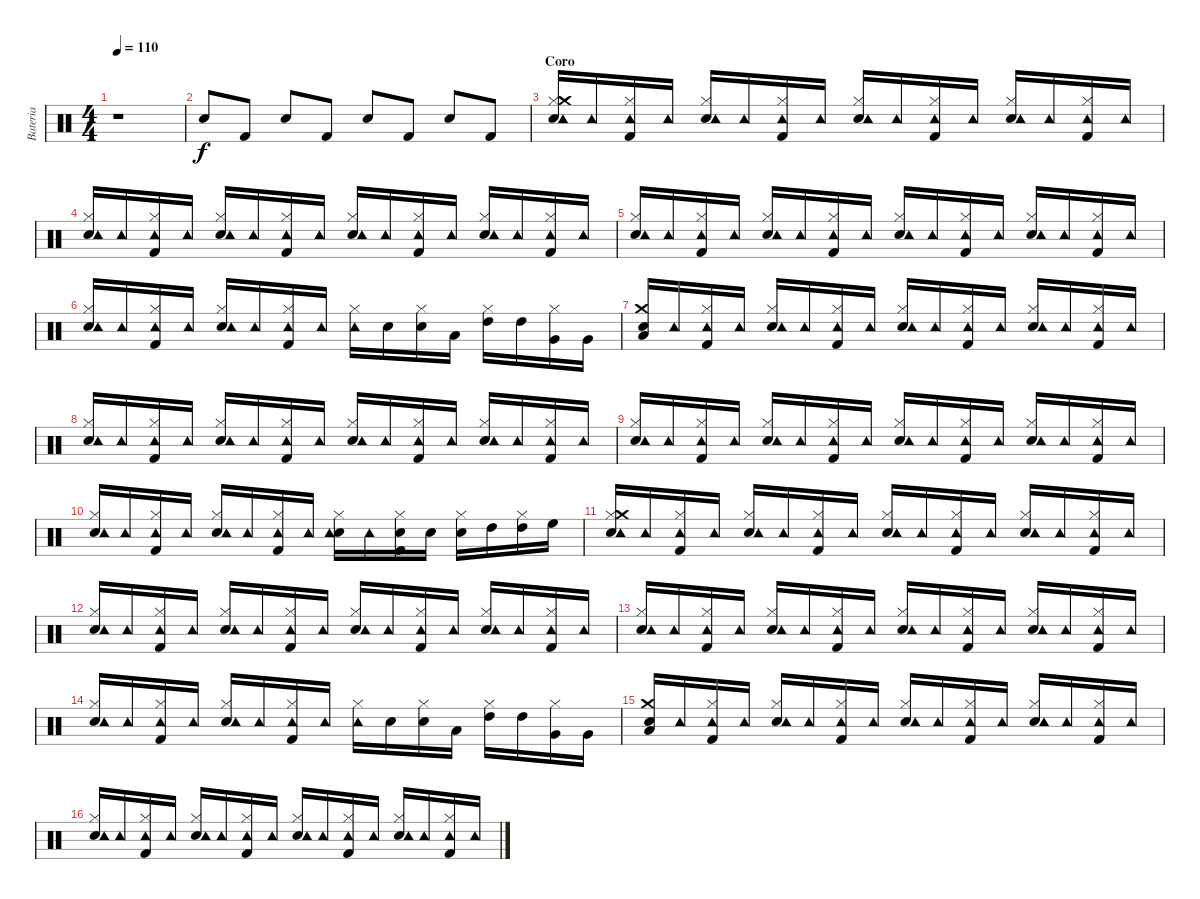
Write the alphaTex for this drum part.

\track ("Bateria" "Bateria") {instrument percussion}
\staff {score}
\articulation defaults
\ts (4 4)
\tempo 110
\clef neutral
\ks c
r.1{dy f} |
"Snare (hit) 2".8 "Kick (hit) 2".8 "Snare (hit) 2".8 "Kick (hit) 2".8 "Snare (hit) 2".8 "Kick (hit) 2".8 "Snare (hit) 2".8 "Kick (hit) 2".8 |
\section ("" "Coro")
("Hi-Hat (closed)" "Snare (hit) 2" "Crash medium (hit)" "Tambourine (hit)").16 "Tambourine (hit)".16 ("Hi-Hat (closed)" "Kick (hit) 2" "Tambourine (hit)").16 "Tambourine (hit)".16 ("Hi-Hat (closed)" "Snare (hit) 2" "Tambourine (hit)").16 "Tambourine (hit)".16 ("Hi-Hat (closed)" "Kick (hit) 2" "Tambourine (hit)").16 "Tambourine (hit)".16 ("Hi-Hat (closed)" "Snare (hit) 2" "Tambourine (hit)").16 "Tambourine (hit)".16 ("Hi-Hat (closed)" "Kick (hit) 2" "Tambourine (hit)").16 "Tambourine (hit)".16 ("Hi-Hat (closed)" "Snare (hit) 2" "Tambourine (hit)").16 "Tambourine (hit)".16 ("Hi-Hat (closed)" "Kick (hit) 2" "Tambourine (hit)").16 "Tambourine (hit)".16 |
("Hi-Hat (closed)" "Snare (hit) 2" "Tambourine (hit)").16 "Tambourine (hit)".16 ("Hi-Hat (closed)" "Kick (hit) 2" "Tambourine (hit)").16 "Tambourine (hit)".16 ("Hi-Hat (closed)" "Snare (hit) 2" "Tambourine (hit)").16 "Tambourine (hit)".16 ("Hi-Hat (closed)" "Kick (hit) 2" "Tambourine (hit)").16 "Tambourine (hit)".16 ("Hi-Hat (closed)" "Snare (hit) 2" "Tambourine (hit)").16 "Tambourine (hit)".16 ("Hi-Hat (closed)" "Kick (hit) 2" "Tambourine (hit)").16 "Tambourine (hit)".16 ("Hi-Hat (closed)" "Snare (hit) 2" "Tambourine (hit)").16 "Tambourine (hit)".16 ("Hi-Hat (closed)" "Kick (hit) 2" "Tambourine (hit)").16 "Tambourine (hit)".16 |
("Hi-Hat (closed)" "Snare (hit) 2" "Tambourine (hit)").16 "Tambourine (hit)".16 ("Hi-Hat (closed)" "Kick (hit) 2" "Tambourine (hit)").16 "Tambourine (hit)".16 ("Hi-Hat (closed)" "Snare (hit) 2" "Tambourine (hit)").16 "Tambourine (hit)".16 ("Hi-Hat (closed)" "Kick (hit) 2" "Tambourine (hit)").16 "Tambourine (hit)".16 ("Hi-Hat (closed)" "Snare (hit) 2" "Tambourine (hit)").16 "Tambourine (hit)".16 ("Hi-Hat (closed)" "Kick (hit) 2" "Tambourine (hit)").16 "Tambourine (hit)".16 ("Hi-Hat (closed)" "Snare (hit) 2" "Tambourine (hit)").16 "Tambourine (hit)".16 ("Hi-Hat (closed)" "Kick (hit) 2" "Tambourine (hit)").16 "Tambourine (hit)".16 |
("Hi-Hat (closed)" "Snare (hit) 2" "Tambourine (hit)").16 "Tambourine (hit)".16 ("Hi-Hat (closed)" "Kick (hit) 2" "Tambourine (hit)").16 "Tambourine (hit)".16 ("Hi-Hat (closed)" "Snare (hit) 2" "Tambourine (hit)").16 "Tambourine (hit)".16 ("Hi-Hat (closed)" "Kick (hit) 2" "Tambourine (hit)").16 "Tambourine (hit)".16 ("Hi-Hat (closed)" "Tambourine (hit)").16 "Snare (hit) 2".16 ("Hi-Hat (closed)" "Snare (hit) 2").16 "Low Tom (hit)".16 ("Hi-Hat (closed)" "High Tom (hit)").16 "High Tom (hit)".16 ("Hi-Hat (closed)" "Very Low Tom (hit)").16 "Very Low Tom (hit)".16 |
("Crash medium (hit)" "Snare (hit) 2" "Low Tom (hit)").16 "Tambourine (hit)".16 ("Hi-Hat (closed)" "Kick (hit) 2" "Tambourine (hit)").16 "Tambourine (hit)".16 ("Hi-Hat (closed)" "Snare (hit) 2" "Tambourine (hit)").16 "Tambourine (hit)".16 ("Hi-Hat (closed)" "Kick (hit) 2" "Tambourine (hit)").16 "Tambourine (hit)".16 ("Hi-Hat (closed)" "Snare (hit) 2" "Tambourine (hit)").16 "Tambourine (hit)".16 ("Hi-Hat (closed)" "Kick (hit) 2" "Tambourine (hit)").16 "Tambourine (hit)".16 ("Hi-Hat (closed)" "Snare (hit) 2" "Tambourine (hit)").16 "Tambourine (hit)".16 ("Hi-Hat (closed)" "Kick (hit) 2" "Tambourine (hit)").16 "Tambourine (hit)".16 |
("Hi-Hat (closed)" "Snare (hit) 2" "Tambourine (hit)").16 "Tambourine (hit)".16 ("Hi-Hat (closed)" "Kick (hit) 2" "Tambourine (hit)").16 "Tambourine (hit)".16 ("Hi-Hat (closed)" "Snare (hit) 2" "Tambourine (hit)").16 "Tambourine (hit)".16 ("Hi-Hat (closed)" "Kick (hit) 2" "Tambourine (hit)").16 "Tambourine (hit)".16 ("Hi-Hat (closed)" "Snare (hit) 2" "Tambourine (hit)").16 "Tambourine (hit)".16 ("Hi-Hat (closed)" "Kick (hit) 2" "Tambourine (hit)").16 "Tambourine (hit)".16 ("Hi-Hat (closed)" "Snare (hit) 2" "Tambourine (hit)").16 "Tambourine (hit)".16 ("Hi-Hat (closed)" "Kick (hit) 2" "Tambourine (hit)").16 "Tambourine (hit)".16 |
("Hi-Hat (closed)" "Snare (hit) 2" "Tambourine (hit)").16 "Tambourine (hit)".16 ("Hi-Hat (closed)" "Kick (hit) 2" "Tambourine (hit)").16 "Tambourine (hit)".16 ("Hi-Hat (closed)" "Snare (hit) 2" "Tambourine (hit)").16 "Tambourine (hit)".16 ("Hi-Hat (closed)" "Kick (hit) 2" "Tambourine (hit)").16 "Tambourine (hit)".16 ("Hi-Hat (closed)" "Snare (hit) 2" "Tambourine (hit)").16 "Tambourine (hit)".16 ("Hi-Hat (closed)" "Kick (hit) 2" "Tambourine (hit)").16 "Tambourine (hit)".16 ("Hi-Hat (closed)" "Snare (hit) 2" "Tambourine (hit)").16 "Tambourine (hit)".16 ("Hi-Hat (closed)" "Kick (hit) 2" "Tambourine (hit)").16 "Tambourine (hit)".16 |
("Hi-Hat (closed)" "Snare (hit) 2" "Tambourine (hit)").16 "Tambourine (hit)".16 ("Hi-Hat (closed)" "Kick (hit) 2" "Tambourine (hit)").16 "Tambourine (hit)".16 ("Hi-Hat (closed)" "Snare (hit) 2" "Tambourine (hit)").16 "Tambourine (hit)".16 ("Hi-Hat (closed)" "Kick (hit) 2" "Tambourine (hit)").16 "Tambourine (hit)".16 ("Hi-Hat (closed)" "Snare (hit) 2" "Tambourine (hit)").16 "Tambourine (hit)".16 ("Hi-Hat (closed)" "Kick (hit) 2" "Snare (hit) 2").16 "Snare (hit) 2".16 ("Hi-Hat (closed)" "Snare (hit) 2").16 "High Tom (hit)".16 ("Hi-Hat (closed)" "High Tom (hit)").16 "High Floor Tom (hit)".16 |
("Hi-Hat (closed)" "Snare (hit) 2" "Crash medium (hit)" "Tambourine (hit)").16 "Tambourine (hit)".16 ("Hi-Hat (closed)" "Kick (hit) 2" "Tambourine (hit)").16 "Tambourine (hit)".16 ("Hi-Hat (closed)" "Snare (hit) 2" "Tambourine (hit)").16 "Tambourine (hit)".16 ("Hi-Hat (closed)" "Kick (hit) 2" "Tambourine (hit)").16 "Tambourine (hit)".16 ("Hi-Hat (closed)" "Snare (hit) 2" "Tambourine (hit)").16 "Tambourine (hit)".16 ("Hi-Hat (closed)" "Kick (hit) 2" "Tambourine (hit)").16 "Tambourine (hit)".16 ("Hi-Hat (closed)" "Snare (hit) 2" "Tambourine (hit)").16 "Tambourine (hit)".16 ("Hi-Hat (closed)" "Kick (hit) 2" "Tambourine (hit)").16 "Tambourine (hit)".16 |
("Hi-Hat (closed)" "Snare (hit) 2" "Tambourine (hit)").16 "Tambourine (hit)".16 ("Hi-Hat (closed)" "Kick (hit) 2" "Tambourine (hit)").16 "Tambourine (hit)".16 ("Hi-Hat (closed)" "Snare (hit) 2" "Tambourine (hit)").16 "Tambourine (hit)".16 ("Hi-Hat (closed)" "Kick (hit) 2" "Tambourine (hit)").16 "Tambourine (hit)".16 ("Hi-Hat (closed)" "Snare (hit) 2" "Tambourine (hit)").16 "Tambourine (hit)".16 ("Hi-Hat (closed)" "Kick (hit) 2" "Tambourine (hit)").16 "Tambourine (hit)".16 ("Hi-Hat (closed)" "Snare (hit) 2" "Tambourine (hit)").16 "Tambourine (hit)".16 ("Hi-Hat (closed)" "Kick (hit) 2" "Tambourine (hit)").16 "Tambourine (hit)".16 |
("Hi-Hat (closed)" "Snare (hit) 2" "Tambourine (hit)").16 "Tambourine (hit)".16 ("Hi-Hat (closed)" "Kick (hit) 2" "Tambourine (hit)").16 "Tambourine (hit)".16 ("Hi-Hat (closed)" "Snare (hit) 2" "Tambourine (hit)").16 "Tambourine (hit)".16 ("Hi-Hat (closed)" "Kick (hit) 2" "Tambourine (hit)").16 "Tambourine (hit)".16 ("Hi-Hat (closed)" "Snare (hit) 2" "Tambourine (hit)").16 "Tambourine (hit)".16 ("Hi-Hat (closed)" "Kick (hit) 2" "Tambourine (hit)").16 "Tambourine (hit)".16 ("Hi-Hat (closed)" "Snare (hit) 2" "Tambourine (hit)").16 "Tambourine (hit)".16 ("Hi-Hat (closed)" "Kick (hit) 2" "Tambourine (hit)").16 "Tambourine (hit)".16 |
("Hi-Hat (closed)" "Snare (hit) 2" "Tambourine (hit)").16 "Tambourine (hit)".16 ("Hi-Hat (closed)" "Kick (hit) 2" "Tambourine (hit)").16 "Tambourine (hit)".16 ("Hi-Hat (closed)" "Snare (hit) 2" "Tambourine (hit)").16 "Tambourine (hit)".16 ("Hi-Hat (closed)" "Kick (hit) 2" "Tambourine (hit)").16 "Tambourine (hit)".16 ("Hi-Hat (closed)" "Tambourine (hit)").16 "Snare (hit) 2".16 ("Hi-Hat (closed)" "Snare (hit) 2").16 "Low Tom (hit)".16 ("Hi-Hat (closed)" "High Tom (hit)").16 "High Tom (hit)".16 ("Hi-Hat (closed)" "Very Low Tom (hit)").16 "Very Low Tom (hit)".16 |
("Crash medium (hit)" "Snare (hit) 2" "Low Tom (hit)").16 "Tambourine (hit)".16 ("Hi-Hat (closed)" "Kick (hit) 2" "Tambourine (hit)").16 "Tambourine (hit)".16 ("Hi-Hat (closed)" "Snare (hit) 2" "Tambourine (hit)").16 "Tambourine (hit)".16 ("Hi-Hat (closed)" "Kick (hit) 2" "Tambourine (hit)").16 "Tambourine (hit)".16 ("Hi-Hat (closed)" "Snare (hit) 2" "Tambourine (hit)").16 "Tambourine (hit)".16 ("Hi-Hat (closed)" "Kick (hit) 2" "Tambourine (hit)").16 "Tambourine (hit)".16 ("Hi-Hat (closed)" "Snare (hit) 2" "Tambourine (hit)").16 "Tambourine (hit)".16 ("Hi-Hat (closed)" "Kick (hit) 2" "Tambourine (hit)").16 "Tambourine (hit)".16 |
("Hi-Hat (closed)" "Snare (hit) 2" "Tambourine (hit)").16 "Tambourine (hit)".16 ("Hi-Hat (closed)" "Kick (hit) 2" "Tambourine (hit)").16 "Tambourine (hit)".16 ("Hi-Hat (closed)" "Snare (hit) 2" "Tambourine (hit)").16 "Tambourine (hit)".16 ("Hi-Hat (closed)" "Kick (hit) 2" "Tambourine (hit)").16 "Tambourine (hit)".16 ("Hi-Hat (closed)" "Snare (hit) 2" "Tambourine (hit)").16 "Tambourine (hit)".16 ("Hi-Hat (closed)" "Kick (hit) 2" "Tambourine (hit)").16 "Tambourine (hit)".16 ("Hi-Hat (closed)" "Snare (hit) 2" "Tambourine (hit)").16 "Tambourine (hit)".16 ("Hi-Hat (closed)" "Kick (hit) 2" "Tambourine (hit)").16 "Tambourine (hit)".16
